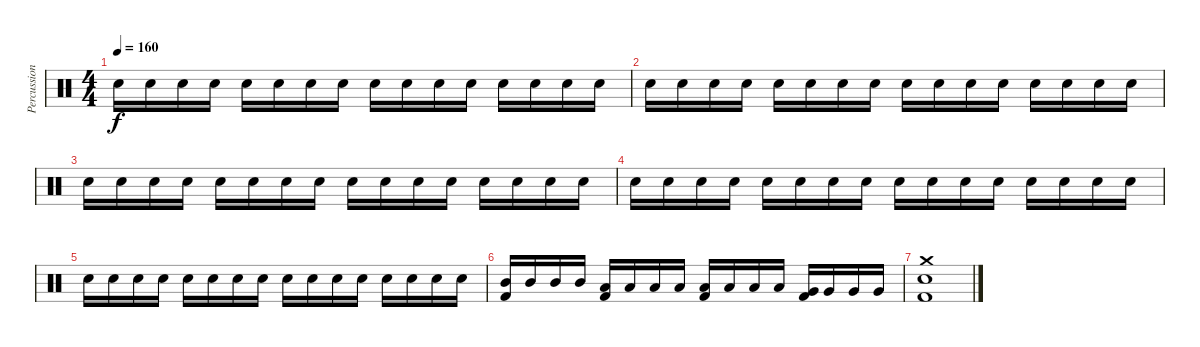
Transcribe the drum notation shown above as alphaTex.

\track ("Percussion" "Percussion") {instrument percussion}
\staff {score}
\articulation defaults
\ts (4 4)
\tempo 160
\clef neutral
\ks c "Electric Snare (hit)".16{dy f} "Electric Snare (hit)".16 "Electric Snare (hit)".16 "Electric Snare (hit)".16 "Electric Snare (hit)".16 "Electric Snare (hit)".16 "Electric Snare (hit)".16 "Electric Snare (hit)".16 "Electric Snare (hit)".16 "Electric Snare (hit)".16 "Electric Snare (hit)".16 "Electric Snare (hit)".16 "Electric Snare (hit)".16 "Electric Snare (hit)".16 "Electric Snare (hit)".16 "Electric Snare (hit)".16
|
"Electric Snare (hit)".16 "Electric Snare (hit)".16 "Electric Snare (hit)".16 "Electric Snare (hit)".16 "Electric Snare (hit)".16 "Electric Snare (hit)".16 "Electric Snare (hit)".16 "Electric Snare (hit)".16 "Electric Snare (hit)".16 "Electric Snare (hit)".16 "Electric Snare (hit)".16 "Electric Snare (hit)".16 "Electric Snare (hit)".16 "Electric Snare (hit)".16 "Electric Snare (hit)".16 "Electric Snare (hit)".16 |
"Electric Snare (hit)".16 "Electric Snare (hit)".16 "Electric Snare (hit)".16 "Electric Snare (hit)".16 "Electric Snare (hit)".16 "Electric Snare (hit)".16 "Electric Snare (hit)".16 "Electric Snare (hit)".16 "Electric Snare (hit)".16 "Electric Snare (hit)".16 "Electric Snare (hit)".16 "Electric Snare (hit)".16 "Electric Snare (hit)".16 "Electric Snare (hit)".16 "Electric Snare (hit)".16 "Electric Snare (hit)".16 |
"Electric Snare (hit)".16 "Electric Snare (hit)".16 "Electric Snare (hit)".16 "Electric Snare (hit)".16 "Electric Snare (hit)".16 "Electric Snare (hit)".16 "Electric Snare (hit)".16 "Electric Snare (hit)".16 "Electric Snare (hit)".16 "Electric Snare (hit)".16 "Electric Snare (hit)".16 "Electric Snare (hit)".16 "Electric Snare (hit)".16 "Electric Snare (hit)".16 "Electric Snare (hit)".16 "Electric Snare (hit)".16 |
"Electric Snare (hit)".16 "Electric Snare (hit)".16 "Electric Snare (hit)".16 "Electric Snare (hit)".16 "Electric Snare (hit)".16 "Electric Snare (hit)".16 "Electric Snare (hit)".16 "Electric Snare (hit)".16 "Electric Snare (hit)".16 "Electric Snare (hit)".16 "Electric Snare (hit)".16 "Electric Snare (hit)".16 "Electric Snare (hit)".16 "Electric Snare (hit)".16 "Electric Snare (hit)".16 "Electric Snare (hit)".16 |
("Mid Tom (hit)" "Kick (hit) 2").16 "Mid Tom (hit)".16 "Mid Tom (hit)".16 "Mid Tom (hit)".16 ("Low Tom (hit)" "Kick (hit) 2").16 "Low Tom (hit)".16 "Low Tom (hit)".16 "Low Tom (hit)".16 ("Low Floor Tom (hit)" "Kick (hit) 2").16 "Low Floor Tom (hit)".16 "Low Floor Tom (hit)".16 "Low Floor Tom (hit)".16 ("Very Low Tom (hit)" "Kick (hit) 2").16 "Very Low Tom (hit)".16 "Very Low Tom (hit)".16 "Very Low Tom (hit)".16 |
("Crash medium (hit)" "Snare (hit) 2" "Kick (hit) 2").1
